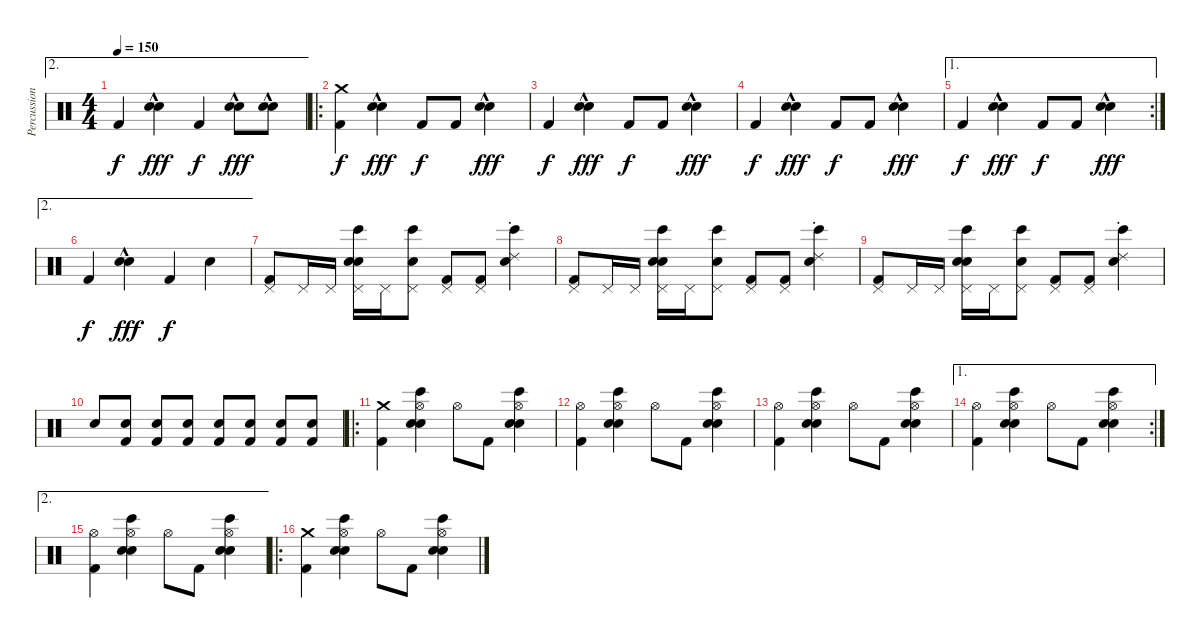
\track ("Percussion" "Percussion") {instrument percussion}
\staff {score}
\articulation defaults
\ae 2
\ts (4 4)
\tempo 150
\clef neutral
\ks c "Kick (hit) 2".4{dy f}
("Hand Clap (hit)"{hac} "Snare (hit) 2").4{dy fff} "Kick (hit) 2".4{dy f} ("Hand Clap (hit)"{hac} "Snare (hit) 2").8{dy fff} ("Hand Clap (hit)"{hac} "Snare (hit) 2").8 |
\ro
("Crash medium (hit)" "Kick (hit) 2").4{dy f} ("Hand Clap (hit)"{hac} "Snare (hit) 2").4{dy fff} "Kick (hit) 2".8{dy f} "Kick (hit) 2".8 ("Hand Clap (hit)"{hac} "Snare (hit) 2").4{dy fff} |
"Kick (hit) 2".4{dy f} ("Hand Clap (hit)"{hac} "Snare (hit) 2").4{dy fff} "Kick (hit) 2".8{dy f} "Kick (hit) 2".8 ("Hand Clap (hit)"{hac} "Snare (hit) 2").4{dy fff} |
"Kick (hit) 2".4{dy f} ("Hand Clap (hit)"{hac} "Snare (hit) 2").4{dy fff} "Kick (hit) 2".8{dy f} "Kick (hit) 2".8 ("Hand Clap (hit)"{hac} "Snare (hit) 2").4{dy fff} |
\ae 1
\rc 2 "Kick (hit) 2".4{dy f}
("Hand Clap (hit)"{hac} "Snare (hit) 2").4{dy fff} "Kick (hit) 2".8{dy f} "Kick (hit) 2".8 ("Hand Clap (hit)"{hac} "Snare (hit) 2").4{dy fff} |
\ae 2 "Kick (hit) 2".4{dy f}
("Hand Clap (hit)"{hac} "Snare (hit) 2").4{dy fff} "Kick (hit) 2".4{dy f} "Snare (hit) 2".4 |
("Pedal Hi-Hat (hit)" "Kick (hit) 2").8 "Pedal Hi-Hat (hit)".16 "Pedal Hi-Hat (hit)".16 ("Bongo High (hit)" "Hand Clap (hit)" "Pedal Hi-Hat (hit)" "Snare (hit) 2").16 "Pedal Hi-Hat (hit)".16 ("Bongo High (hit)" "Pedal Hi-Hat (hit)" "Hand Clap (hit)").8 ("Pedal Hi-Hat (hit)" "Kick (hit) 2").8 ("Pedal Hi-Hat (hit)" "Kick (hit) 2").8 ("Ride (choke) 2" "Bongo High (hit)" "Snare (hit) 2").4 |
("Pedal Hi-Hat (hit)" "Kick (hit) 2").8 "Pedal Hi-Hat (hit)".16 "Pedal Hi-Hat (hit)".16 ("Bongo High (hit)" "Hand Clap (hit)" "Pedal Hi-Hat (hit)" "Snare (hit) 2").16 "Pedal Hi-Hat (hit)".16 ("Bongo High (hit)" "Pedal Hi-Hat (hit)" "Hand Clap (hit)").8 ("Pedal Hi-Hat (hit)" "Kick (hit) 2").8 ("Pedal Hi-Hat (hit)" "Kick (hit) 2").8 ("Ride (choke) 2" "Bongo High (hit)" "Snare (hit) 2").4 |
("Pedal Hi-Hat (hit)" "Kick (hit) 2").8 "Pedal Hi-Hat (hit)".16 "Pedal Hi-Hat (hit)".16 ("Bongo High (hit)" "Hand Clap (hit)" "Pedal Hi-Hat (hit)" "Snare (hit) 2").16 "Pedal Hi-Hat (hit)".16 ("Bongo High (hit)" "Pedal Hi-Hat (hit)" "Hand Clap (hit)").8 ("Pedal Hi-Hat (hit)" "Kick (hit) 2").8 ("Pedal Hi-Hat (hit)" "Kick (hit) 2").8 ("Ride (choke) 2" "Bongo High (hit)" "Snare (hit) 2").4 |
"Snare (hit) 2".8{volume 7} ("Snare (hit) 2" "Kick (hit) 2").8{volume 14} ("Snare (hit) 2" "Kick (hit) 2").8 ("Snare (hit) 2" "Kick (hit) 2").8 ("Snare (hit) 2" "Kick (hit) 2").8 ("Snare (hit) 2" "Kick (hit) 2").8 ("Snare (hit) 2" "Kick (hit) 2").8 ("Snare (hit) 2" "Kick (hit) 2").8 |
\ro
("Crash medium (hit)" "Kick (hit) 2").4 ("Hi-Hat (open)" "Hand Clap (hit)" "Bongo High (hit)" "Snare (hit) 2").4 "Hi-Hat (open)".8 "Kick (hit) 2".8 ("Hi-Hat (open)" "Hand Clap (hit)" "Bongo High (hit)" "Snare (hit) 2").4 |
("Hi-Hat (open)" "Kick (hit) 2").4 ("Hi-Hat (open)" "Hand Clap (hit)" "Bongo High (hit)" "Snare (hit) 2").4 "Hi-Hat (open)".8 "Kick (hit) 2".8 ("Hi-Hat (open)" "Hand Clap (hit)" "Bongo High (hit)" "Snare (hit) 2").4 |
("Hi-Hat (open)" "Kick (hit) 2").4 ("Hi-Hat (open)" "Hand Clap (hit)" "Bongo High (hit)" "Snare (hit) 2").4 "Hi-Hat (open)".8 "Kick (hit) 2".8 ("Hi-Hat (open)" "Hand Clap (hit)" "Bongo High (hit)" "Snare (hit) 2").4 |
\ae 1
\rc 2
("Hi-Hat (open)" "Kick (hit) 2").4 ("Hi-Hat (open)" "Hand Clap (hit)" "Bongo High (hit)" "Snare (hit) 2").4 "Hi-Hat (open)".8 "Kick (hit) 2".8 ("Hi-Hat (open)" "Hand Clap (hit)" "Bongo High (hit)" "Snare (hit) 2").4 |
\ae 2
("Hi-Hat (open)" "Kick (hit) 2").4 ("Hi-Hat (open)" "Hand Clap (hit)" "Bongo High (hit)" "Snare (hit) 2").4 "Hi-Hat (open)".8 "Kick (hit) 2".8 ("Hi-Hat (open)" "Hand Clap (hit)" "Bongo High (hit)" "Snare (hit) 2").4 |
\ro
("Crash medium (hit)" "Kick (hit) 2").4 ("Hi-Hat (open)" "Hand Clap (hit)" "Bongo High (hit)" "Snare (hit) 2").4 "Hi-Hat (open)".8 "Kick (hit) 2".8 ("Hi-Hat (open)" "Hand Clap (hit)" "Bongo High (hit)" "Snare (hit) 2").4
